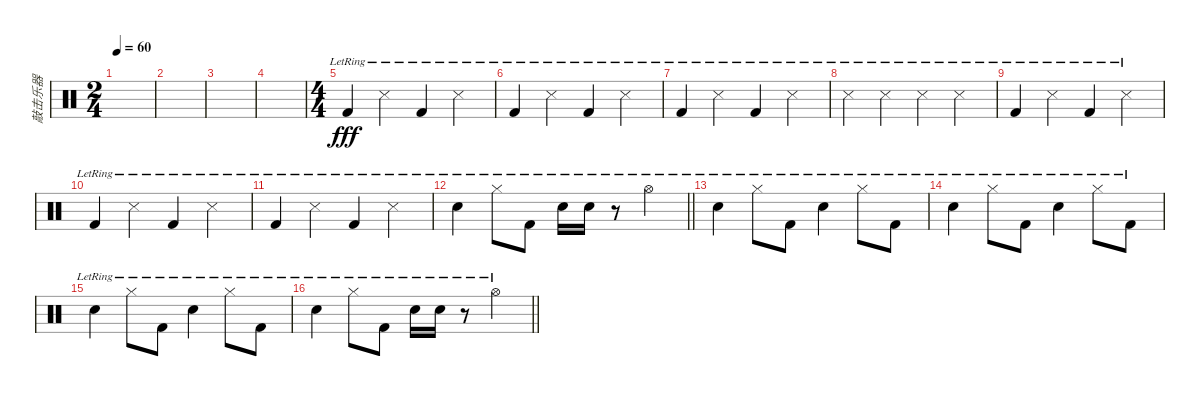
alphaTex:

\track ("敲击乐器" "敲击乐器") {instrument percussion}
\staff {score}
\articulation defaults
\ts (2 4)
\tempo 60
\clef neutral
\ks c
|
|
|
|
\ts (4 4)
"Kick (hit) 2"{lr}.4{dy fff} "Snare (side stick) 3"{lr}.4 "Kick (hit) 2"{lr}.4 "Snare (side stick) 3"{lr}.4 |
"Kick (hit) 2"{lr}.4 "Snare (side stick) 3"{lr}.4 "Kick (hit) 2"{lr}.4 "Snare (side stick) 3"{lr}.4 |
"Kick (hit) 2"{lr}.4 "Snare (side stick) 3"{lr}.4 "Kick (hit) 2"{lr}.4 "Snare (side stick) 3"{lr}.4 |
"Snare (side stick) 3"{lr}.4 "Snare (side stick) 3"{lr}.4 "Snare (side stick) 3"{lr}.4 "Snare (side stick) 3"{lr}.4 |
"Kick (hit) 2"{lr}.4 "Snare (side stick) 3"{lr}.4 "Kick (hit) 2"{lr}.4 "Snare (side stick) 3"{lr}.4 |
"Kick (hit) 2"{lr}.4 "Snare (side stick) 3"{lr}.4 "Kick (hit) 2"{lr}.4 "Snare (side stick) 3"{lr}.4 |
"Kick (hit) 2"{lr}.4 "Snare (side stick) 3"{lr}.4 "Kick (hit) 2"{lr}.4 "Snare (side stick) 3"{lr}.4 |
\barLineRight lightlight "Snare (hit) 2"{lr}.4 "Hi-Hat (closed)"{lr}.8 "Kick (hit) 2"{lr}.8 "Snare (hit) 2"{lr}.16 "Snare (hit) 2"{lr}.16
r.8 "Hi-Hat (open)"{lr}.4 |
"Snare (hit) 2"{lr}.4 "Hi-Hat (closed)"{lr}.8 "Kick (hit) 2"{lr}.8 "Snare (hit) 2"{lr}.4 "Hi-Hat (closed)"{lr}.8 "Kick (hit) 2"{lr}.8 |
"Snare (hit) 2"{lr}.4 "Hi-Hat (closed)"{lr}.8 "Kick (hit) 2"{lr}.8 "Snare (hit) 2"{lr}.4 "Hi-Hat (closed)"{lr}.8 "Kick (hit) 2"{lr}.8 |
"Snare (hit) 2"{lr}.4 "Hi-Hat (closed)"{lr}.8 "Kick (hit) 2"{lr}.8 "Snare (hit) 2"{lr}.4 "Hi-Hat (closed)"{lr}.8 "Kick (hit) 2"{lr}.8 |
\barLineRight lightlight "Snare (hit) 2"{lr}.4 "Hi-Hat (closed)"{lr}.8 "Kick (hit) 2"{lr}.8 "Snare (hit) 2"{lr}.16 "Snare (hit) 2"{lr}.16
r.8 "Hi-Hat (open)"{lr}.4
